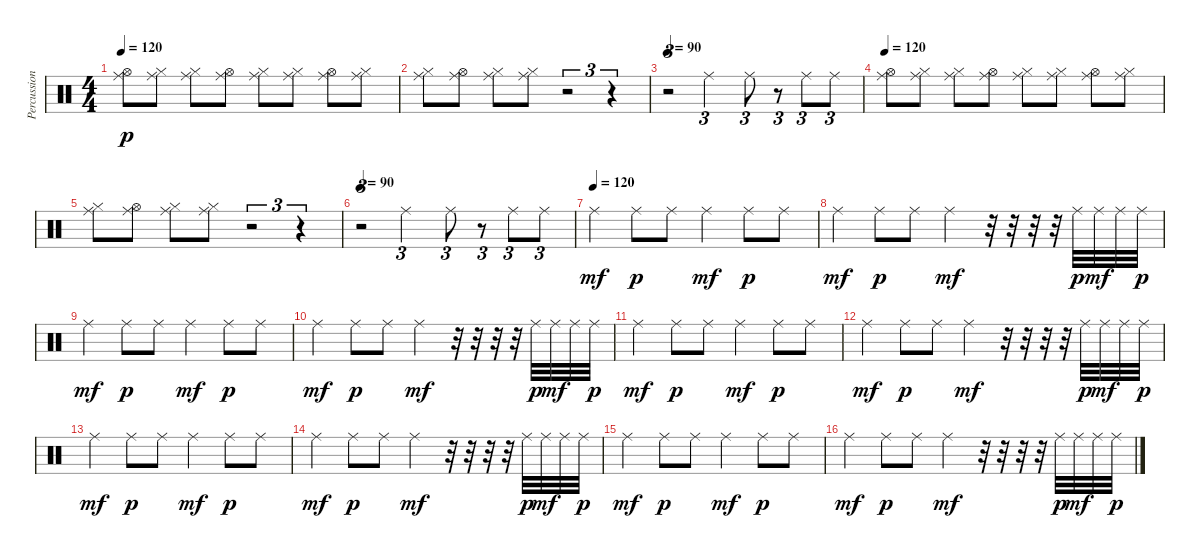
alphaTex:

\track ("Percussion" "Percussion") {instrument percussion}
\staff {score}
\articulation defaults
\ts (4 4)
\tempo 120
\clef neutral
\ks c
("Hi-Hat (open)" "Ride (middle)").8{dy p} ("Ride (middle)" "Hi-Hat (closed)").8 ("Ride (middle)" "Hi-Hat (closed)").8 ("Hi-Hat (open)" "Ride (middle)").8 ("Ride (middle)" "Hi-Hat (closed)").8 ("Ride (middle)" "Hi-Hat (closed)").8 ("Hi-Hat (open)" "Ride (middle)").8 ("Ride (middle)" "Hi-Hat (closed)").8 |
("Ride (middle)" "Hi-Hat (closed)").8 ("Hi-Hat (open)" "Ride (middle)").8 ("Ride (middle)" "Hi-Hat (closed)").8 ("Ride (middle)" "Hi-Hat (closed)").8 r.2{tu (3 2)} r.4{tu (3 2)} |
\tempo 90
r.2{tu (3 2)} "Ride (middle)".2{tu (3 2)} "Ride (middle)".8{tu (3 2)} r.8{tu (3 2)} "Ride (middle)".8{tu (3 2)} "Ride (middle)".8{tu (3 2)} |
\tempo 120
("Hi-Hat (open)" "Ride (middle)").8 ("Ride (middle)" "Hi-Hat (closed)").8 ("Ride (middle)" "Hi-Hat (closed)").8 ("Hi-Hat (open)" "Ride (middle)").8 ("Ride (middle)" "Hi-Hat (closed)").8 ("Ride (middle)" "Hi-Hat (closed)").8 ("Hi-Hat (open)" "Ride (middle)").8 ("Ride (middle)" "Hi-Hat (closed)").8 |
("Ride (middle)" "Hi-Hat (closed)").8 ("Hi-Hat (open)" "Ride (middle)").8 ("Ride (middle)" "Hi-Hat (closed)").8 ("Ride (middle)" "Hi-Hat (closed)").8 r.2{tu (3 2)} r.4{tu (3 2)} |
\tempo 90
r.2{tu (3 2)} "Ride (middle)".2{tu (3 2)} "Ride (middle)".8{tu (3 2)} r.8{tu (3 2)} "Ride (middle)".8{tu (3 2)} "Ride (middle)".8{tu (3 2)} |
\tempo (120)
"Ride (middle)".4{dy mf} "Ride (middle)".8{dy p} "Ride (middle)".8 "Ride (middle)".4{dy mf} "Ride (middle)".8{dy p} "Ride (middle)".8 |
"Ride (middle)".4{dy mf} "Ride (middle)".8{dy p} "Ride (middle)".8 "Ride (middle)".4{dy mf} r.32 r.32 r.32 r.32 "Ride (middle)".32{dy p} "Ride (middle)".32{dy mf} "Ride (middle)".32 "Ride (middle)".32{dy p} |
"Ride (middle)".4{dy mf} "Ride (middle)".8{dy p} "Ride (middle)".8 "Ride (middle)".4{dy mf} "Ride (middle)".8{dy p} "Ride (middle)".8 |
"Ride (middle)".4{dy mf} "Ride (middle)".8{dy p} "Ride (middle)".8 "Ride (middle)".4{dy mf} r.32 r.32 r.32 r.32 "Ride (middle)".32{dy p} "Ride (middle)".32{dy mf} "Ride (middle)".32 "Ride (middle)".32{dy p} |
"Ride (middle)".4{dy mf} "Ride (middle)".8{dy p} "Ride (middle)".8 "Ride (middle)".4{dy mf} "Ride (middle)".8{dy p} "Ride (middle)".8 |
"Ride (middle)".4{dy mf} "Ride (middle)".8{dy p} "Ride (middle)".8 "Ride (middle)".4{dy mf} r.32 r.32 r.32 r.32 "Ride (middle)".32{dy p} "Ride (middle)".32{dy mf} "Ride (middle)".32 "Ride (middle)".32{dy p} |
"Ride (middle)".4{dy mf} "Ride (middle)".8{dy p} "Ride (middle)".8 "Ride (middle)".4{dy mf} "Ride (middle)".8{dy p} "Ride (middle)".8 |
"Ride (middle)".4{dy mf} "Ride (middle)".8{dy p} "Ride (middle)".8 "Ride (middle)".4{dy mf} r.32 r.32 r.32 r.32 "Ride (middle)".32{dy p} "Ride (middle)".32{dy mf} "Ride (middle)".32 "Ride (middle)".32{dy p} |
"Ride (middle)".4{dy mf} "Ride (middle)".8{dy p} "Ride (middle)".8 "Ride (middle)".4{dy mf} "Ride (middle)".8{dy p} "Ride (middle)".8 |
"Ride (middle)".4{dy mf} "Ride (middle)".8{dy p} "Ride (middle)".8 "Ride (middle)".4{dy mf} r.32 r.32 r.32 r.32 "Ride (middle)".32{dy p} "Ride (middle)".32{dy mf} "Ride (middle)".32 "Ride (middle)".32{dy p}
